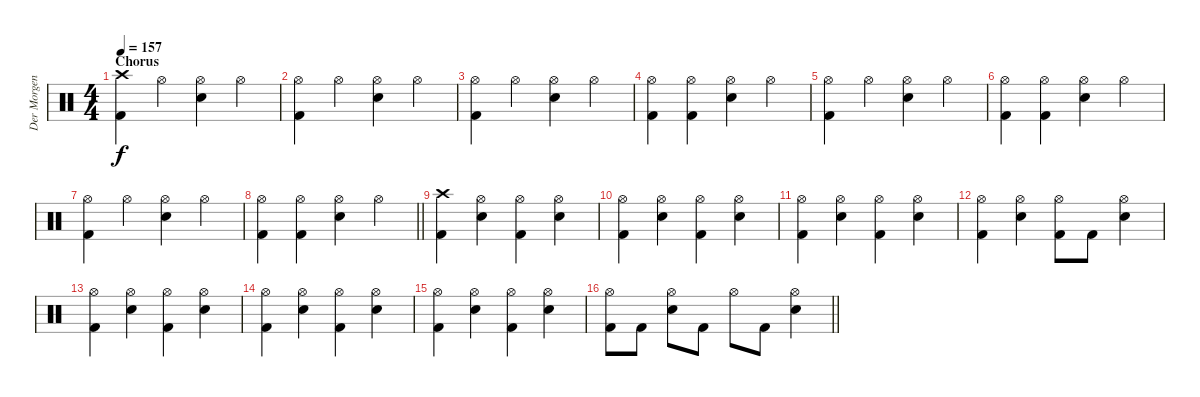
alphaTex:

\track ("Der Morgenstern" "Der Morgen") {instrument percussion}
\staff {score}
\articulation defaults
\ts (4 4)
\section ("" "Chorus")
\tempo 157
\clef neutral
\ks c
("Crash high (hit)" "Kick (hit) 2").4{dy f} "Hi-Hat (open)".4 ("Hi-Hat (open)" "Electric Snare (hit)").4 "Hi-Hat (open)".4 |
("Hi-Hat (open)" "Kick (hit) 2").4 "Hi-Hat (open)".4 ("Hi-Hat (open)" "Electric Snare (hit)").4 "Hi-Hat (open)".4 |
("Hi-Hat (open)" "Kick (hit) 2").4 "Hi-Hat (open)".4 ("Hi-Hat (open)" "Electric Snare (hit)").4 "Hi-Hat (open)".4 |
("Hi-Hat (open)" "Kick (hit) 2").4 ("Hi-Hat (open)" "Kick (hit) 2").4 ("Hi-Hat (open)" "Electric Snare (hit)").4 "Hi-Hat (open)".4 |
("Hi-Hat (open)" "Kick (hit) 2").4 "Hi-Hat (open)".4 ("Hi-Hat (open)" "Electric Snare (hit)").4 "Hi-Hat (open)".4 |
("Hi-Hat (open)" "Kick (hit) 2").4 ("Hi-Hat (open)" "Kick (hit) 2").4 ("Hi-Hat (open)" "Electric Snare (hit)").4 "Hi-Hat (open)".4 |
("Hi-Hat (open)" "Kick (hit) 2").4 "Hi-Hat (open)".4 ("Hi-Hat (open)" "Electric Snare (hit)").4 "Hi-Hat (open)".4 |
\barLineRight lightlight
("Hi-Hat (open)" "Kick (hit) 2").4 ("Hi-Hat (open)" "Kick (hit) 2").4 ("Hi-Hat (open)" "Electric Snare (hit)").4 "Hi-Hat (open)".4 |
("Crash high (hit)" "Kick (hit) 2").4 ("Hi-Hat (open)" "Electric Snare (hit)").4 ("Hi-Hat (open)" "Kick (hit) 2").4 ("Hi-Hat (open)" "Electric Snare (hit)").4 |
("Hi-Hat (open)" "Kick (hit) 2").4 ("Hi-Hat (open)" "Electric Snare (hit)").4 ("Hi-Hat (open)" "Kick (hit) 2").4 ("Hi-Hat (open)" "Electric Snare (hit)").4 |
("Hi-Hat (open)" "Kick (hit) 2").4 ("Hi-Hat (open)" "Electric Snare (hit)").4 ("Hi-Hat (open)" "Kick (hit) 2").4 ("Hi-Hat (open)" "Electric Snare (hit)").4 |
("Hi-Hat (open)" "Kick (hit) 2").4 ("Hi-Hat (open)" "Electric Snare (hit)").4 ("Hi-Hat (open)" "Kick (hit) 2").8 "Kick (hit) 2".8 ("Hi-Hat (open)" "Electric Snare (hit)").4 |
("Hi-Hat (open)" "Kick (hit) 2").4 ("Hi-Hat (open)" "Electric Snare (hit)").4 ("Hi-Hat (open)" "Kick (hit) 2").4 ("Hi-Hat (open)" "Electric Snare (hit)").4 |
("Hi-Hat (open)" "Kick (hit) 2").4 ("Hi-Hat (open)" "Electric Snare (hit)").4 ("Hi-Hat (open)" "Kick (hit) 2").4 ("Hi-Hat (open)" "Electric Snare (hit)").4 |
("Hi-Hat (open)" "Kick (hit) 2").4 ("Hi-Hat (open)" "Electric Snare (hit)").4 ("Hi-Hat (open)" "Kick (hit) 2").4 ("Hi-Hat (open)" "Electric Snare (hit)").4 |
\barLineRight lightlight
("Hi-Hat (open)" "Kick (hit) 2").8 "Kick (hit) 2".8 ("Hi-Hat (open)" "Electric Snare (hit)").8 "Kick (hit) 2".8 "Hi-Hat (open)".8 "Kick (hit) 2".8 ("Hi-Hat (open)" "Electric Snare (hit)").4
